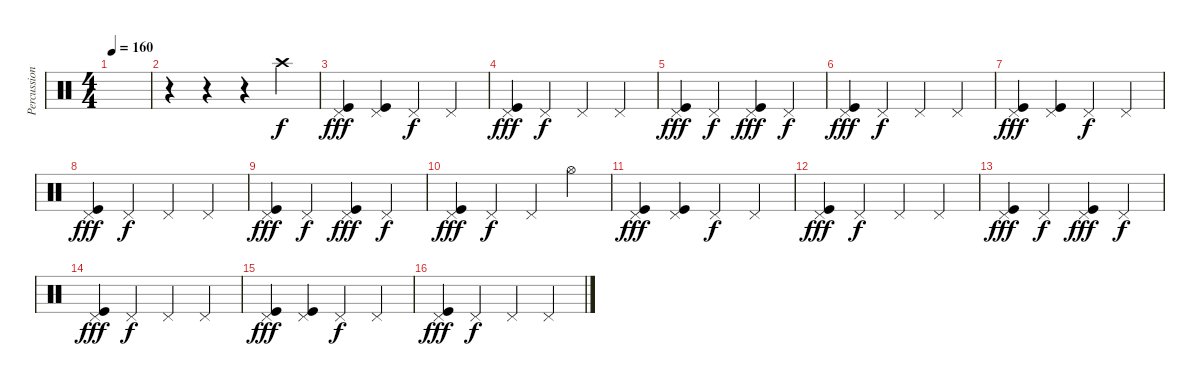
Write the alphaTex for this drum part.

\track ("Percussion" "Percussion") {solo instrument percussion}
\staff {score}
\articulation defaults
\ts (4 4)
\tempo 160
\clef neutral
\ks c
|
r.4 r.4 r.4 "Crash high (hit)".4 |
("Pedal Hi-Hat (hit)" "Kick (hit)").4{dy fff} ("Pedal Hi-Hat (hit)" "Kick (hit)").4 "Pedal Hi-Hat (hit)".4{dy f} "Pedal Hi-Hat (hit)".4 |
("Pedal Hi-Hat (hit)" "Kick (hit)").4{dy fff} "Pedal Hi-Hat (hit)".4{dy f} "Pedal Hi-Hat (hit)".4 "Pedal Hi-Hat (hit)".4 |
("Pedal Hi-Hat (hit)" "Kick (hit)").4{dy fff} "Pedal Hi-Hat (hit)".4{dy f} ("Pedal Hi-Hat (hit)" "Kick (hit)").4{dy fff} "Pedal Hi-Hat (hit)".4{dy f} |
("Pedal Hi-Hat (hit)" "Kick (hit)").4{dy fff} "Pedal Hi-Hat (hit)".4{dy f} "Pedal Hi-Hat (hit)".4 "Pedal Hi-Hat (hit)".4 |
("Pedal Hi-Hat (hit)" "Kick (hit)").4{dy fff} ("Pedal Hi-Hat (hit)" "Kick (hit)").4 "Pedal Hi-Hat (hit)".4{dy f} "Pedal Hi-Hat (hit)".4 |
("Pedal Hi-Hat (hit)" "Kick (hit)").4{dy fff} "Pedal Hi-Hat (hit)".4{dy f} "Pedal Hi-Hat (hit)".4 "Pedal Hi-Hat (hit)".4 |
("Pedal Hi-Hat (hit)" "Kick (hit)").4{dy fff} "Pedal Hi-Hat (hit)".4{dy f} ("Pedal Hi-Hat (hit)" "Kick (hit)").4{dy fff} "Pedal Hi-Hat (hit)".4{dy f} |
("Pedal Hi-Hat (hit)" "Kick (hit)").4{dy fff} "Pedal Hi-Hat (hit)".4{dy f} "Pedal Hi-Hat (hit)".4 "Hi-Hat (open)".4 |
("Pedal Hi-Hat (hit)" "Kick (hit)").4{dy fff} ("Pedal Hi-Hat (hit)" "Kick (hit)").4 "Pedal Hi-Hat (hit)".4{dy f} "Pedal Hi-Hat (hit)".4 |
("Pedal Hi-Hat (hit)" "Kick (hit)").4{dy fff} "Pedal Hi-Hat (hit)".4{dy f} "Pedal Hi-Hat (hit)".4 "Pedal Hi-Hat (hit)".4 |
("Pedal Hi-Hat (hit)" "Kick (hit)").4{dy fff} "Pedal Hi-Hat (hit)".4{dy f} ("Pedal Hi-Hat (hit)" "Kick (hit)").4{dy fff} "Pedal Hi-Hat (hit)".4{dy f} |
("Pedal Hi-Hat (hit)" "Kick (hit)").4{dy fff} "Pedal Hi-Hat (hit)".4{dy f} "Pedal Hi-Hat (hit)".4 "Pedal Hi-Hat (hit)".4 |
("Pedal Hi-Hat (hit)" "Kick (hit)").4{dy fff} ("Pedal Hi-Hat (hit)" "Kick (hit)").4 "Pedal Hi-Hat (hit)".4{dy f} "Pedal Hi-Hat (hit)".4 |
("Pedal Hi-Hat (hit)" "Kick (hit)").4{dy fff} "Pedal Hi-Hat (hit)".4{dy f} "Pedal Hi-Hat (hit)".4 "Pedal Hi-Hat (hit)".4
